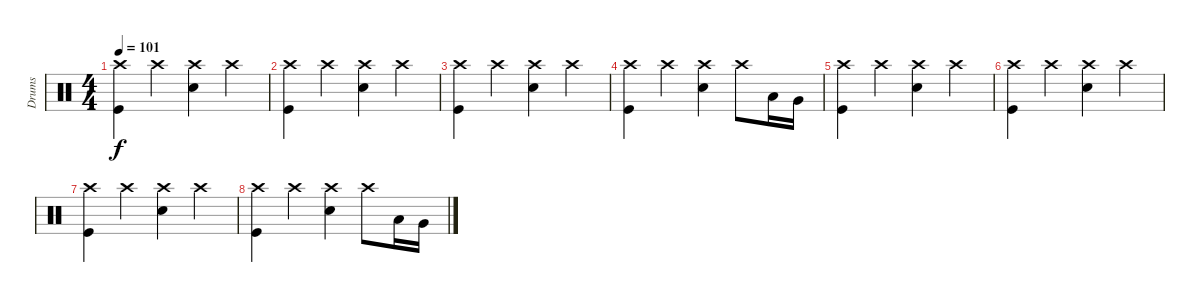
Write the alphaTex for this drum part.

\track ("Drums" "Drums") {instrument percussion}
\staff
\articulation defaults
\ts (4 4)
\section ("" "")
\tempo 101
\clef neutral
\ks c
("Crash high (hit)" "Kick (hit)").4{dy f} "Crash high (hit)".4 ("Crash high (hit)" "Electric Snare (hit)").4 "Crash high (hit)".4 |
("Crash high (hit)" "Kick (hit)").4 "Crash high (hit)".4 ("Crash high (hit)" "Electric Snare (hit)").4 "Crash high (hit)".4 |
("Crash high (hit)" "Kick (hit)").4 "Crash high (hit)".4 ("Crash high (hit)" "Electric Snare (hit)").4 "Crash high (hit)".4 |
("Crash high (hit)" "Kick (hit)").4 "Crash high (hit)".4 ("Crash high (hit)" "Electric Snare (hit)").4 "Crash high (hit)".8 "Low Tom (hit)".16 "Very Low Tom (hit)".16 |
("Crash high (hit)" "Kick (hit)").4 "Crash high (hit)".4 ("Crash high (hit)" "Electric Snare (hit)").4 "Crash high (hit)".4 |
("Crash high (hit)" "Kick (hit)").4 "Crash high (hit)".4 ("Crash high (hit)" "Electric Snare (hit)").4 "Crash high (hit)".4 |
("Crash high (hit)" "Kick (hit)").4 "Crash high (hit)".4 ("Crash high (hit)" "Electric Snare (hit)").4 "Crash high (hit)".4 |
("Crash high (hit)" "Kick (hit)").4 "Crash high (hit)".4 ("Crash high (hit)" "Electric Snare (hit)").4 "Crash high (hit)".8 "Low Tom (hit)".16 "Very Low Tom (hit)".16
